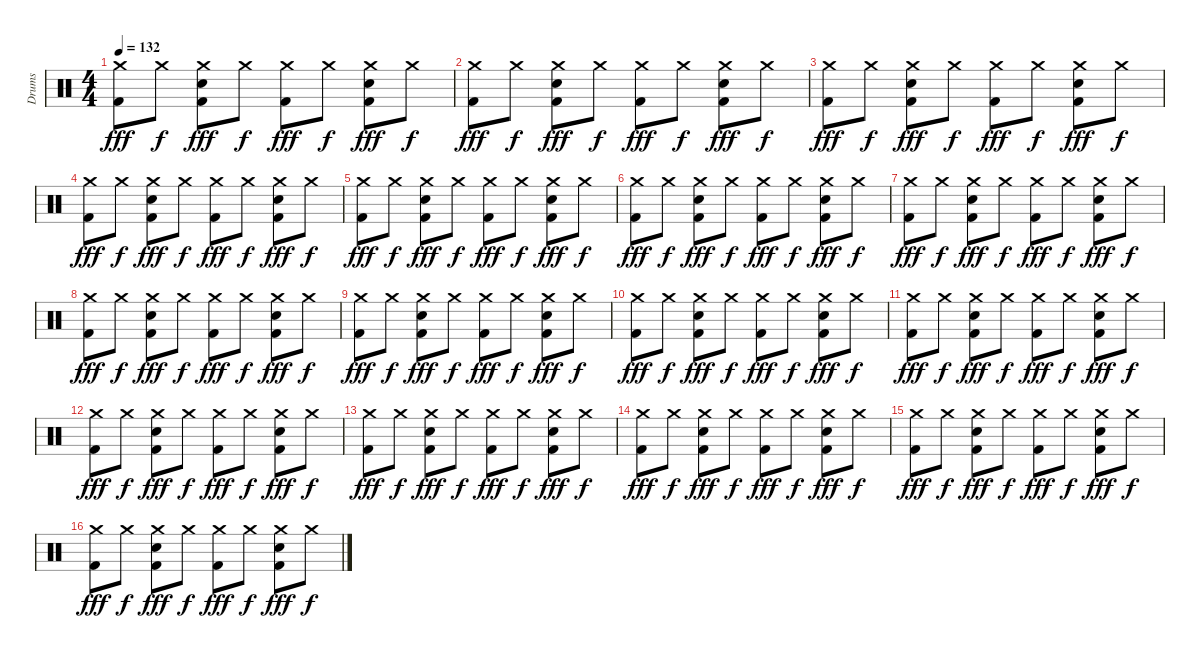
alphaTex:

\track ("Drums" "Drums") {instrument percussion}
\staff {score}
\articulation defaults
\ts (4 4)
\tempo 132
\clef neutral
\ks c
("Crash medium (hit)" "Kick (hit) 2").8{dy fff} "Crash medium (hit)".8{dy f} ("Crash medium (hit)" "Snare (hit) 2" "Kick (hit) 2").8{dy fff} "Crash medium (hit)".8{dy f} ("Crash medium (hit)" "Kick (hit) 2").8{dy fff} "Crash medium (hit)".8{dy f} ("Crash medium (hit)" "Snare (hit) 2" "Kick (hit) 2").8{dy fff} "Crash medium (hit)".8{dy f} |
("Crash medium (hit)" "Kick (hit) 2").8{dy fff} "Crash medium (hit)".8{dy f} ("Crash medium (hit)" "Snare (hit) 2" "Kick (hit) 2").8{dy fff} "Crash medium (hit)".8{dy f} ("Crash medium (hit)" "Kick (hit) 2").8{dy fff} "Crash medium (hit)".8{dy f} ("Crash medium (hit)" "Snare (hit) 2" "Kick (hit) 2").8{dy fff} "Crash medium (hit)".8{dy f} |
("Crash medium (hit)" "Kick (hit) 2").8{dy fff} "Crash medium (hit)".8{dy f} ("Crash medium (hit)" "Snare (hit) 2" "Kick (hit) 2").8{dy fff} "Crash medium (hit)".8{dy f} ("Crash medium (hit)" "Kick (hit) 2").8{dy fff} "Crash medium (hit)".8{dy f} ("Crash medium (hit)" "Snare (hit) 2" "Kick (hit) 2").8{dy fff} "Crash medium (hit)".8{dy f} |
("Crash medium (hit)" "Kick (hit) 2").8{dy fff} "Crash medium (hit)".8{dy f} ("Crash medium (hit)" "Snare (hit) 2" "Kick (hit) 2").8{dy fff} "Crash medium (hit)".8{dy f} ("Crash medium (hit)" "Kick (hit) 2").8{dy fff} "Crash medium (hit)".8{dy f} ("Crash medium (hit)" "Snare (hit) 2" "Kick (hit) 2").8{dy fff} "Crash medium (hit)".8{dy f} |
("Crash medium (hit)" "Kick (hit) 2").8{dy fff} "Crash medium (hit)".8{dy f} ("Crash medium (hit)" "Snare (hit) 2" "Kick (hit) 2").8{dy fff} "Crash medium (hit)".8{dy f} ("Crash medium (hit)" "Kick (hit) 2").8{dy fff} "Crash medium (hit)".8{dy f} ("Crash medium (hit)" "Snare (hit) 2" "Kick (hit) 2").8{dy fff} "Crash medium (hit)".8{dy f} |
("Crash medium (hit)" "Kick (hit) 2").8{dy fff} "Crash medium (hit)".8{dy f} ("Crash medium (hit)" "Snare (hit) 2" "Kick (hit) 2").8{dy fff} "Crash medium (hit)".8{dy f} ("Crash medium (hit)" "Kick (hit) 2").8{dy fff} "Crash medium (hit)".8{dy f} ("Crash medium (hit)" "Snare (hit) 2" "Kick (hit) 2").8{dy fff} "Crash medium (hit)".8{dy f} |
("Crash medium (hit)" "Kick (hit) 2").8{dy fff} "Crash medium (hit)".8{dy f} ("Crash medium (hit)" "Snare (hit) 2" "Kick (hit) 2").8{dy fff} "Crash medium (hit)".8{dy f} ("Crash medium (hit)" "Kick (hit) 2").8{dy fff} "Crash medium (hit)".8{dy f} ("Crash medium (hit)" "Snare (hit) 2" "Kick (hit) 2").8{dy fff} "Crash medium (hit)".8{dy f} |
("Crash medium (hit)" "Kick (hit) 2").8{dy fff} "Crash medium (hit)".8{dy f} ("Crash medium (hit)" "Snare (hit) 2" "Kick (hit) 2").8{dy fff} "Crash medium (hit)".8{dy f} ("Crash medium (hit)" "Kick (hit) 2").8{dy fff} "Crash medium (hit)".8{dy f} ("Crash medium (hit)" "Snare (hit) 2" "Kick (hit) 2").8{dy fff} "Crash medium (hit)".8{dy f} |
("Crash medium (hit)" "Kick (hit) 2").8{dy fff} "Crash medium (hit)".8{dy f} ("Crash medium (hit)" "Snare (hit) 2" "Kick (hit) 2").8{dy fff} "Crash medium (hit)".8{dy f} ("Crash medium (hit)" "Kick (hit) 2").8{dy fff} "Crash medium (hit)".8{dy f} ("Crash medium (hit)" "Snare (hit) 2" "Kick (hit) 2").8{dy fff} "Crash medium (hit)".8{dy f} |
("Crash medium (hit)" "Kick (hit) 2").8{dy fff} "Crash medium (hit)".8{dy f} ("Crash medium (hit)" "Snare (hit) 2" "Kick (hit) 2").8{dy fff} "Crash medium (hit)".8{dy f} ("Crash medium (hit)" "Kick (hit) 2").8{dy fff} "Crash medium (hit)".8{dy f} ("Crash medium (hit)" "Snare (hit) 2" "Kick (hit) 2").8{dy fff} "Crash medium (hit)".8{dy f} |
("Crash medium (hit)" "Kick (hit) 2").8{dy fff} "Crash medium (hit)".8{dy f} ("Crash medium (hit)" "Snare (hit) 2" "Kick (hit) 2").8{dy fff} "Crash medium (hit)".8{dy f} ("Crash medium (hit)" "Kick (hit) 2").8{dy fff} "Crash medium (hit)".8{dy f} ("Crash medium (hit)" "Snare (hit) 2" "Kick (hit) 2").8{dy fff} "Crash medium (hit)".8{dy f} |
("Crash medium (hit)" "Kick (hit) 2").8{dy fff} "Crash medium (hit)".8{dy f} ("Crash medium (hit)" "Snare (hit) 2" "Kick (hit) 2").8{dy fff} "Crash medium (hit)".8{dy f} ("Crash medium (hit)" "Kick (hit) 2").8{dy fff} "Crash medium (hit)".8{dy f} ("Crash medium (hit)" "Snare (hit) 2" "Kick (hit) 2").8{dy fff} "Crash medium (hit)".8{dy f} |
("Crash medium (hit)" "Kick (hit) 2").8{dy fff} "Crash medium (hit)".8{dy f} ("Crash medium (hit)" "Snare (hit) 2" "Kick (hit) 2").8{dy fff} "Crash medium (hit)".8{dy f} ("Crash medium (hit)" "Kick (hit) 2").8{dy fff} "Crash medium (hit)".8{dy f} ("Crash medium (hit)" "Snare (hit) 2" "Kick (hit) 2").8{dy fff} "Crash medium (hit)".8{dy f} |
("Crash medium (hit)" "Kick (hit) 2").8{dy fff} "Crash medium (hit)".8{dy f} ("Crash medium (hit)" "Snare (hit) 2" "Kick (hit) 2").8{dy fff} "Crash medium (hit)".8{dy f} ("Crash medium (hit)" "Kick (hit) 2").8{dy fff} "Crash medium (hit)".8{dy f} ("Crash medium (hit)" "Snare (hit) 2" "Kick (hit) 2").8{dy fff} "Crash medium (hit)".8{dy f} |
("Crash medium (hit)" "Kick (hit) 2").8{dy fff} "Crash medium (hit)".8{dy f} ("Crash medium (hit)" "Snare (hit) 2" "Kick (hit) 2").8{dy fff} "Crash medium (hit)".8{dy f} ("Crash medium (hit)" "Kick (hit) 2").8{dy fff} "Crash medium (hit)".8{dy f} ("Crash medium (hit)" "Snare (hit) 2" "Kick (hit) 2").8{dy fff} "Crash medium (hit)".8{dy f} |
("Crash medium (hit)" "Kick (hit) 2").8{dy fff} "Crash medium (hit)".8{dy f} ("Crash medium (hit)" "Snare (hit) 2" "Kick (hit) 2").8{dy fff} "Crash medium (hit)".8{dy f} ("Crash medium (hit)" "Kick (hit) 2").8{dy fff} "Crash medium (hit)".8{dy f} ("Crash medium (hit)" "Snare (hit) 2" "Kick (hit) 2").8{dy fff} "Crash medium (hit)".8{dy f}
